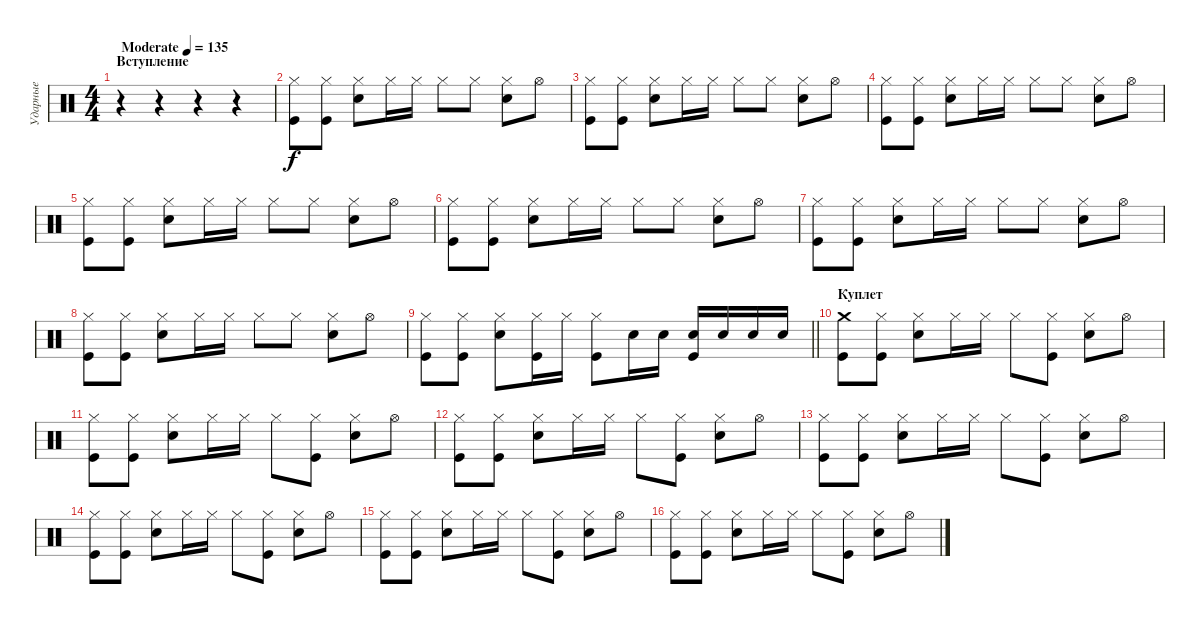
\track ("Ударные" "Ударные") {instrument percussion}
\staff {score}
\articulation defaults
\ts (4 4)
\section ("" "Вступление")
\tempo (135 "Moderate")
\clef neutral
\ks c
r.4{dy f} r.4 r.4 r.4 |
("Hi-Hat (closed)" "Kick (hit)").8 ("Hi-Hat (closed)" "Kick (hit)").8 ("Hi-Hat (closed)" "Electric Snare (hit)").8 "Hi-Hat (closed)".16 "Hi-Hat (closed)".16 "Hi-Hat (closed)".8 "Hi-Hat (closed)".8 ("Hi-Hat (closed)" "Electric Snare (hit)").8 "Hi-Hat (open)".8 |
("Hi-Hat (closed)" "Kick (hit)").8 ("Hi-Hat (closed)" "Kick (hit)").8 ("Hi-Hat (closed)" "Electric Snare (hit)").8 "Hi-Hat (closed)".16 "Hi-Hat (closed)".16 "Hi-Hat (closed)".8 "Hi-Hat (closed)".8 ("Hi-Hat (closed)" "Electric Snare (hit)").8 "Hi-Hat (open)".8 |
("Hi-Hat (closed)" "Kick (hit)").8 ("Hi-Hat (closed)" "Kick (hit)").8 ("Hi-Hat (closed)" "Electric Snare (hit)").8 "Hi-Hat (closed)".16 "Hi-Hat (closed)".16 "Hi-Hat (closed)".8 "Hi-Hat (closed)".8 ("Hi-Hat (closed)" "Electric Snare (hit)").8 "Hi-Hat (open)".8 |
("Hi-Hat (closed)" "Kick (hit)").8 ("Hi-Hat (closed)" "Kick (hit)").8 ("Hi-Hat (closed)" "Electric Snare (hit)").8 "Hi-Hat (closed)".16 "Hi-Hat (closed)".16 "Hi-Hat (closed)".8 "Hi-Hat (closed)".8 ("Hi-Hat (closed)" "Electric Snare (hit)").8 "Hi-Hat (open)".8 |
("Hi-Hat (closed)" "Kick (hit)").8 ("Hi-Hat (closed)" "Kick (hit)").8 ("Hi-Hat (closed)" "Electric Snare (hit)").8 "Hi-Hat (closed)".16 "Hi-Hat (closed)".16 "Hi-Hat (closed)".8 "Hi-Hat (closed)".8 ("Hi-Hat (closed)" "Electric Snare (hit)").8 "Hi-Hat (open)".8 |
("Hi-Hat (closed)" "Kick (hit)").8 ("Hi-Hat (closed)" "Kick (hit)").8 ("Hi-Hat (closed)" "Electric Snare (hit)").8 "Hi-Hat (closed)".16 "Hi-Hat (closed)".16 "Hi-Hat (closed)".8 "Hi-Hat (closed)".8 ("Hi-Hat (closed)" "Electric Snare (hit)").8 "Hi-Hat (open)".8 |
("Hi-Hat (closed)" "Kick (hit)").8 ("Hi-Hat (closed)" "Kick (hit)").8 ("Hi-Hat (closed)" "Electric Snare (hit)").8 "Hi-Hat (closed)".16 "Hi-Hat (closed)".16 "Hi-Hat (closed)".8 "Hi-Hat (closed)".8 ("Hi-Hat (closed)" "Electric Snare (hit)").8 "Hi-Hat (open)".8 |
\barLineRight lightlight
("Hi-Hat (closed)" "Kick (hit)").8 ("Hi-Hat (closed)" "Kick (hit)").8 ("Hi-Hat (closed)" "Electric Snare (hit)").8 ("Hi-Hat (closed)" "Kick (hit)").16 "Hi-Hat (closed)".16 ("Hi-Hat (closed)" "Kick (hit)").8 "Electric Snare (hit)".16 "Electric Snare (hit)".16 ("Electric Snare (hit)" "Kick (hit)").16 "Electric Snare (hit)".16 "Electric Snare (hit)".16 "Electric Snare (hit)".16 |
\section ("" "Куплет")
("Crash medium (hit)" "Kick (hit)").8 ("Hi-Hat (closed)" "Kick (hit)").8 ("Hi-Hat (closed)" "Electric Snare (hit)").8 "Hi-Hat (closed)".16 "Hi-Hat (closed)".16 "Hi-Hat (closed)".8 ("Hi-Hat (closed)" "Kick (hit)").8 ("Hi-Hat (closed)" "Electric Snare (hit)").8 "Hi-Hat (open)".8 |
("Hi-Hat (closed)" "Kick (hit)").8 ("Hi-Hat (closed)" "Kick (hit)").8 ("Hi-Hat (closed)" "Electric Snare (hit)").8 "Hi-Hat (closed)".16 "Hi-Hat (closed)".16 "Hi-Hat (closed)".8 ("Hi-Hat (closed)" "Kick (hit)").8 ("Hi-Hat (closed)" "Electric Snare (hit)").8 "Hi-Hat (open)".8 |
("Hi-Hat (closed)" "Kick (hit)").8 ("Hi-Hat (closed)" "Kick (hit)").8 ("Hi-Hat (closed)" "Electric Snare (hit)").8 "Hi-Hat (closed)".16 "Hi-Hat (closed)".16 "Hi-Hat (closed)".8 ("Hi-Hat (closed)" "Kick (hit)").8 ("Hi-Hat (closed)" "Electric Snare (hit)").8 "Hi-Hat (open)".8 |
("Hi-Hat (closed)" "Kick (hit)").8 ("Hi-Hat (closed)" "Kick (hit)").8 ("Hi-Hat (closed)" "Electric Snare (hit)").8 "Hi-Hat (closed)".16 "Hi-Hat (closed)".16 "Hi-Hat (closed)".8 ("Hi-Hat (closed)" "Kick (hit)").8 ("Hi-Hat (closed)" "Electric Snare (hit)").8 "Hi-Hat (open)".8 |
("Hi-Hat (closed)" "Kick (hit)").8 ("Hi-Hat (closed)" "Kick (hit)").8 ("Hi-Hat (closed)" "Electric Snare (hit)").8 "Hi-Hat (closed)".16 "Hi-Hat (closed)".16 "Hi-Hat (closed)".8 ("Hi-Hat (closed)" "Kick (hit)").8 ("Hi-Hat (closed)" "Electric Snare (hit)").8 "Hi-Hat (open)".8 |
("Hi-Hat (closed)" "Kick (hit)").8 ("Hi-Hat (closed)" "Kick (hit)").8 ("Hi-Hat (closed)" "Electric Snare (hit)").8 "Hi-Hat (closed)".16 "Hi-Hat (closed)".16 "Hi-Hat (closed)".8 ("Hi-Hat (closed)" "Kick (hit)").8 ("Hi-Hat (closed)" "Electric Snare (hit)").8 "Hi-Hat (open)".8 |
("Hi-Hat (closed)" "Kick (hit)").8 ("Hi-Hat (closed)" "Kick (hit)").8 ("Hi-Hat (closed)" "Electric Snare (hit)").8 "Hi-Hat (closed)".16 "Hi-Hat (closed)".16 "Hi-Hat (closed)".8 ("Hi-Hat (closed)" "Kick (hit)").8 ("Hi-Hat (closed)" "Electric Snare (hit)").8 "Hi-Hat (open)".8
